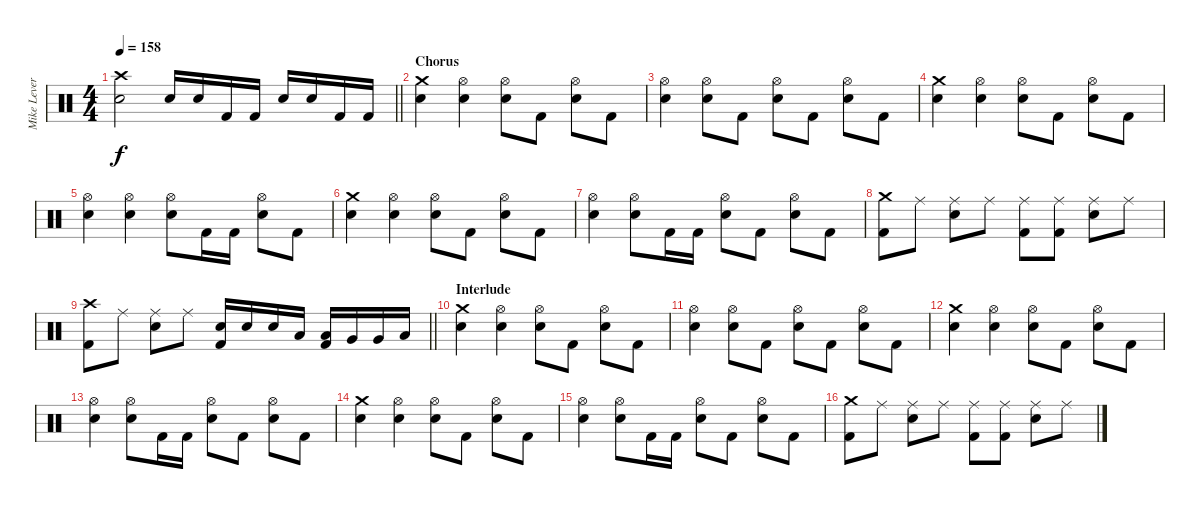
\track ("Mike Leverence - Drums" "Mike Lever") {instrument percussion}
\staff {score}
\articulation defaults
\ts (4 4)
\tempo 158
\clef neutral
\barLineRight lightlight
\ks c
("Crash high (hit)" "Electric Snare (hit)").2{dy f} "Electric Snare (hit)".16 "Electric Snare (hit)".16 "Kick (hit) 2".16 "Kick (hit) 2".16 "Electric Snare (hit)".16 "Electric Snare (hit)".16 "Kick (hit) 2".16 "Kick (hit) 2".16 |
\section ("" "Chorus")
("Crash medium (hit)" "Electric Snare (hit)").4 ("Hi-Hat (open)" "Electric Snare (hit)").4 ("Hi-Hat (open)" "Electric Snare (hit)").8 "Kick (hit) 2".8 ("Hi-Hat (open)" "Electric Snare (hit)").8 "Kick (hit) 2".8 |
("Hi-Hat (open)" "Electric Snare (hit)").4 ("Hi-Hat (open)" "Electric Snare (hit)").8 "Kick (hit) 2".8 ("Hi-Hat (open)" "Electric Snare (hit)").8 "Kick (hit) 2".8 ("Hi-Hat (open)" "Electric Snare (hit)").8 "Kick (hit) 2".8 |
("Crash medium (hit)" "Electric Snare (hit)").4 ("Hi-Hat (open)" "Electric Snare (hit)").4 ("Hi-Hat (open)" "Electric Snare (hit)").8 "Kick (hit) 2".8 ("Hi-Hat (open)" "Electric Snare (hit)").8 "Kick (hit) 2".8 |
("Hi-Hat (open)" "Electric Snare (hit)").4 ("Hi-Hat (open)" "Electric Snare (hit)").4 ("Hi-Hat (open)" "Electric Snare (hit)").8 "Kick (hit) 2".16 "Kick (hit) 2".16 ("Hi-Hat (open)" "Electric Snare (hit)").8 "Kick (hit) 2".8 |
("Crash medium (hit)" "Electric Snare (hit)").4 ("Hi-Hat (open)" "Electric Snare (hit)").4 ("Hi-Hat (open)" "Electric Snare (hit)").8 "Kick (hit) 2".8 ("Hi-Hat (open)" "Electric Snare (hit)").8 "Kick (hit) 2".8 |
("Hi-Hat (open)" "Electric Snare (hit)").4 ("Hi-Hat (open)" "Electric Snare (hit)").8 "Kick (hit) 2".16 "Kick (hit) 2".16 ("Hi-Hat (open)" "Electric Snare (hit)").8 "Kick (hit) 2".8 ("Hi-Hat (open)" "Electric Snare (hit)").8 "Kick (hit) 2".8 |
("Crash medium (hit)" "Kick (hit) 2").8 "Ride (middle)".8 ("Ride (middle)" "Electric Snare (hit)").8 "Ride (middle)".8 ("Ride (middle)" "Kick (hit) 2").8 ("Ride (middle)" "Kick (hit) 2").8 ("Ride (middle)" "Electric Snare (hit)").8 "Ride (middle)".8 |
\barLineRight lightlight
("Crash high (hit)" "Kick (hit) 2").8 "Ride (middle)".8 ("Ride (middle)" "Electric Snare (hit)").8 "Ride (middle)".8 ("Electric Snare (hit)" "Kick (hit) 2").16 "Electric Snare (hit)".16 "Electric Snare (hit)".16 "Low Tom (hit)".16 ("Low Tom (hit)" "Kick (hit) 2").16 "Very Low Tom (hit)".16 "Very Low Tom (hit)".16 "Low Floor Tom (hit)".16 |
\section ("" "Interlude")
("Crash medium (hit)" "Electric Snare (hit)").4 ("Hi-Hat (open)" "Electric Snare (hit)").4 ("Hi-Hat (open)" "Electric Snare (hit)").8 "Kick (hit) 2".8 ("Hi-Hat (open)" "Electric Snare (hit)").8 "Kick (hit) 2".8 |
("Hi-Hat (open)" "Electric Snare (hit)").4 ("Hi-Hat (open)" "Electric Snare (hit)").8 "Kick (hit) 2".8 ("Hi-Hat (open)" "Electric Snare (hit)").8 "Kick (hit) 2".8 ("Hi-Hat (open)" "Electric Snare (hit)").8 "Kick (hit) 2".8 |
("Crash medium (hit)" "Electric Snare (hit)").4 ("Hi-Hat (open)" "Electric Snare (hit)").4 ("Hi-Hat (open)" "Electric Snare (hit)").8 "Kick (hit) 2".8 ("Hi-Hat (open)" "Electric Snare (hit)").8 "Kick (hit) 2".8 |
("Hi-Hat (open)" "Electric Snare (hit)").4 ("Hi-Hat (open)" "Electric Snare (hit)").8 "Kick (hit) 2".16 "Kick (hit) 2".16 ("Hi-Hat (open)" "Electric Snare (hit)").8 "Kick (hit) 2".8 ("Hi-Hat (open)" "Electric Snare (hit)").8 "Kick (hit) 2".8 |
("Crash medium (hit)" "Electric Snare (hit)").4 ("Hi-Hat (open)" "Electric Snare (hit)").4 ("Hi-Hat (open)" "Electric Snare (hit)").8 "Kick (hit) 2".8 ("Hi-Hat (open)" "Electric Snare (hit)").8 "Kick (hit) 2".8 |
("Hi-Hat (open)" "Electric Snare (hit)").4 ("Hi-Hat (open)" "Electric Snare (hit)").8 "Kick (hit) 2".16 "Kick (hit) 2".16 ("Hi-Hat (open)" "Electric Snare (hit)").8 "Kick (hit) 2".8 ("Hi-Hat (open)" "Electric Snare (hit)").8 "Kick (hit) 2".8 |
("Crash medium (hit)" "Kick (hit) 2").8 "Ride (middle)".8 ("Ride (middle)" "Electric Snare (hit)").8 "Ride (middle)".8 ("Ride (middle)" "Kick (hit) 2").8 ("Ride (middle)" "Kick (hit) 2").8 ("Ride (middle)" "Electric Snare (hit)").8 "Ride (middle)".8
